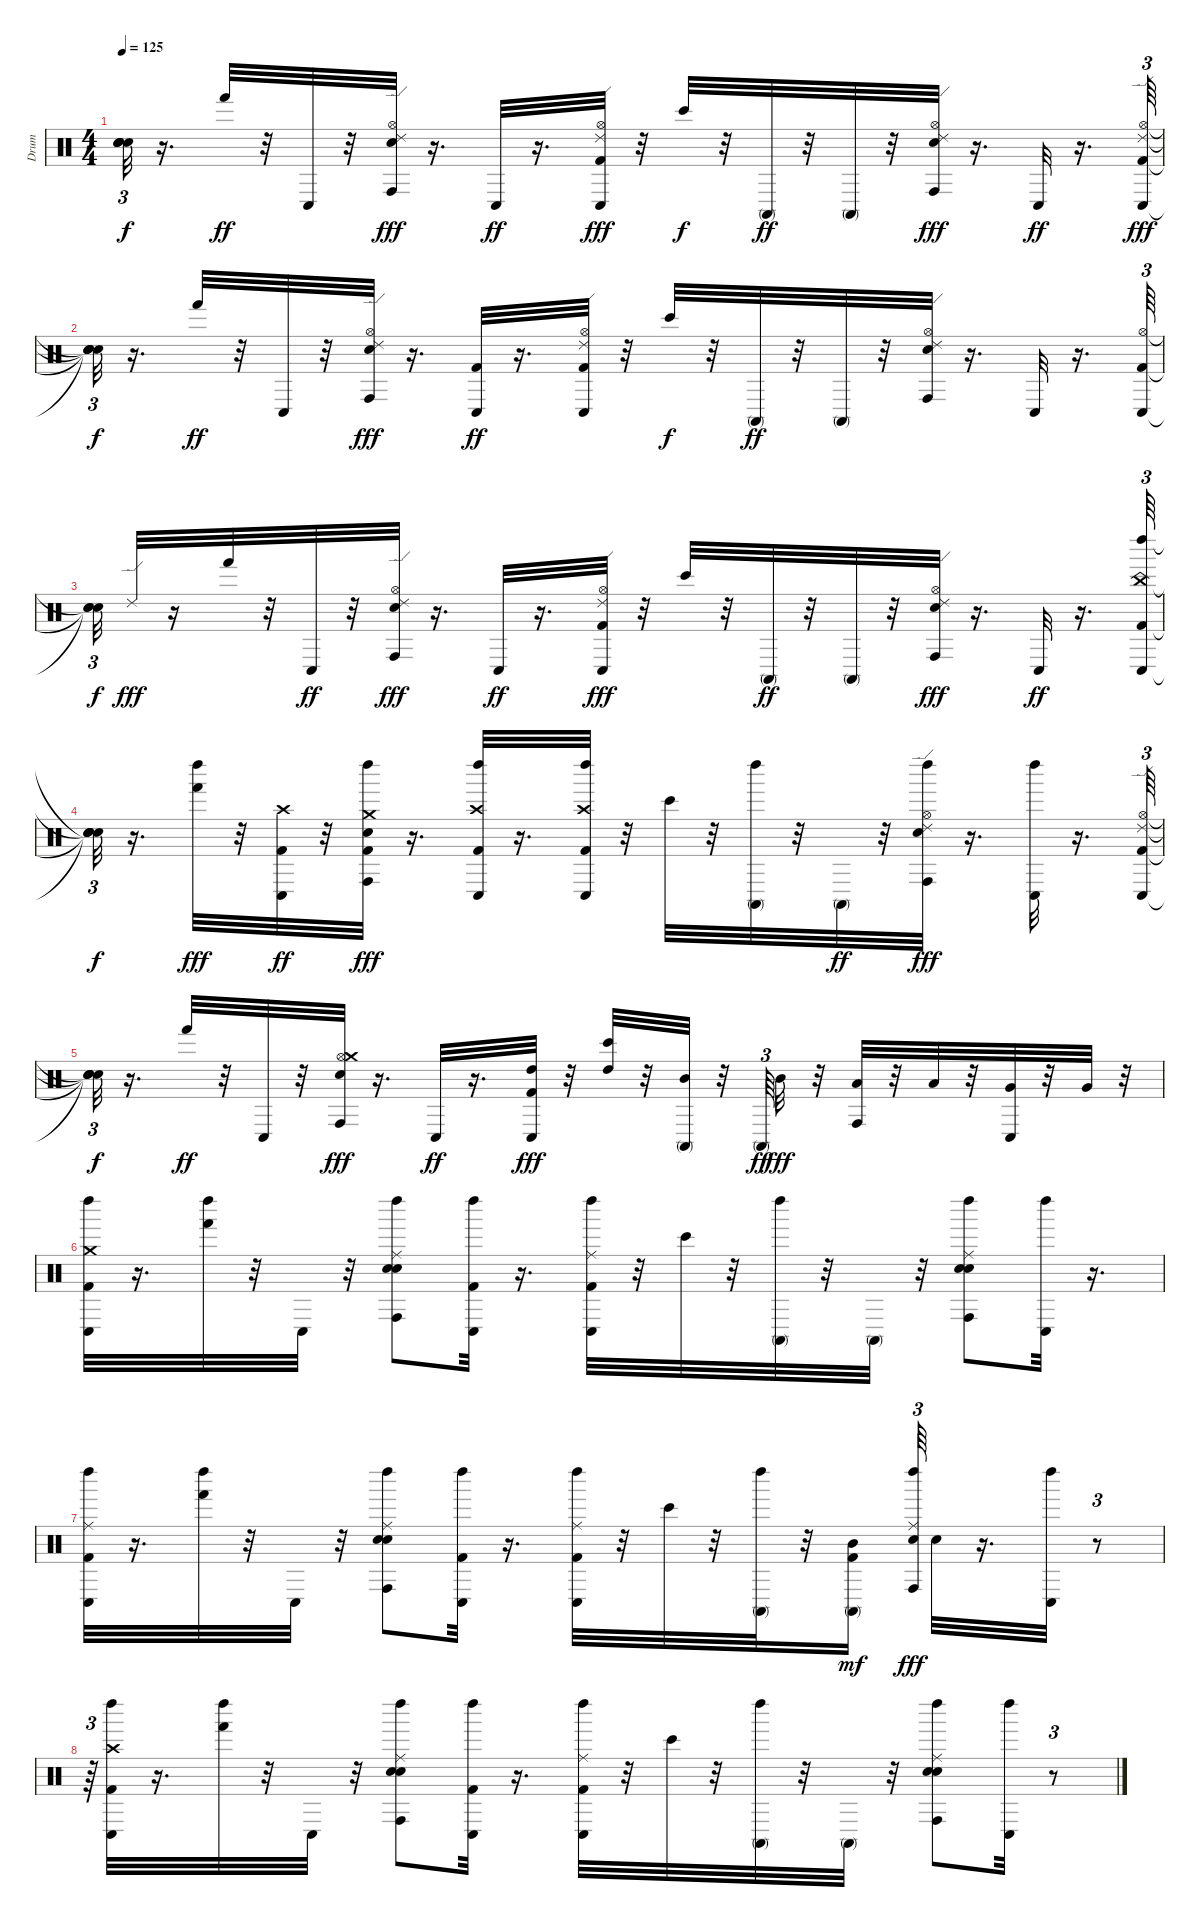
\track ("Drum" "Drum") {instrument percussion}
\staff {score}
\articulation defaults
\ts (4 4)
\tempo 125
\clef neutral
\ks c
("Snare (hit)"{t} "Snare (hit)"{t} "Snare (hit)"{t} "Snare (hit)"{t}).32{tu (3 2) dy f} r.16{d} "Hand (hit)".32{dy ff} r.32 "Conga low (hit)".32 r.32 ("Hi-Hat (open)" "Conga high (hit)" "Electric Snare (hit)" "Ride (edge) 2").32{dy fff} r.16{d} "Conga low (hit)".32{dy ff} r.16{d} ("Kick (hit) 2" "Hi-Hat (open)" "Conga low (hit)" "Ride (edge) 2").32{dy fff} r.32 "Bongo High (hit)".32{dy f} r.32 "Conga high (mute)".32{dy ff} r.32 "Conga high (mute)".32 r.32 ("Hi-Hat (open)" "Conga high (hit)" "Electric Snare (hit)" "Ride (edge) 2").32{dy fff} r.16{d} "Conga low (hit)".32{dy ff} r.16{d} ("Kick (hit) 2" "Hi-Hat (open)" "Conga low (hit)" "Ride (edge) 2").64{tu (3 2) dy fff} |
("Snare (hit)"{t} "Snare (hit)"{t} "Snare (hit)"{t} "Snare (hit)"{t}).32{tu (3 2) dy f} r.16{d} "Hand (hit)".32{dy ff} r.32 "Conga low (hit)".32 r.32 ("Hi-Hat (open)" "Conga high (hit)" "Electric Snare (hit)" "Ride (edge) 2").32{dy fff} r.16{d} ("Kick (hit) 2" "Conga low (hit)").32{dy ff} r.16{d} ("Kick (hit) 2" "Hi-Hat (open)" "Conga low (hit)" "Ride (edge) 2").32 r.32 "Bongo High (hit)".32{dy f} r.32 "Conga high (mute)".32{dy ff} r.32 "Conga high (mute)".32 r.32 ("Hi-Hat (open)" "Conga high (hit)" "Electric Snare (hit)" "Ride (edge) 2").32 r.16{d} "Conga low (hit)".32 r.16{d} ("Kick (hit) 2" "Hi-Hat (open)" "Conga low (hit)").64{tu (3 2)} |
("Snare (hit)"{t} "Snare (hit)"{t} "Snare (hit)"{t}).32{tu (3 2) dy f} "Ride (edge) 2".32{dy fff} r.16 "Hand (hit)".32 r.32 "Conga low (hit)".32{dy ff} r.32 ("Hi-Hat (open)" "Conga high (hit)" "Electric Snare (hit)" "Ride (edge) 2").32{dy fff} r.16{d} "Conga low (hit)".32{dy ff} r.16{d} ("Kick (hit) 2" "Hi-Hat (open)" "Conga low (hit)" "Ride (edge) 2").32{dy fff} r.32 "Bongo High (hit)".32 r.32 "Conga high (mute)".32{dy ff} r.32 "Conga high (mute)".32 r.32 ("Hi-Hat (open)" "Conga high (hit)" "Electric Snare (hit)" "Ride (edge) 2").32{dy fff} r.16{d} "Conga low (hit)".32{dy ff} r.16{d} ("Kick (hit) 2" "Conga low (hit)" "Left Maraca (hit)" "China (hit)").64{tu (3 2)} |
("Snare (hit)"{t} "Snare (hit)"{t} "Snare (hit)"{t} "Snare (hit)"{t}).32{tu (3 2) dy f} r.16{d} ("Hand (hit)" "Left Maraca (hit)").32{dy fff} r.32 ("Kick (hit) 2" "Conga low (hit)" "Crash high (hit)").32{dy ff} r.32 ("Kick (hit) 2" "Conga high (hit)" "Left Maraca (hit)" "Electric Snare (hit)" "Crash medium (hit)").32{dy fff} r.16{d} ("Kick (hit) 2" "Conga low (hit)" "Left Maraca (hit)" "Crash high (hit)").32 r.16{d} ("Kick (hit) 2" "Conga low (hit)" "Left Maraca (hit)" "Crash high (hit)").32 r.32 "Bongo High (hit)".32 r.32 ("Conga high (mute)" "Left Maraca (hit)").32 r.32 "Conga high (mute)".32{dy ff} r.32 ("Hi-Hat (open)" "Conga high (hit)" "Left Maraca (hit)" "Electric Snare (hit)" "Ride (edge) 2").32{dy fff} r.16{d} ("Conga low (hit)" "Left Maraca (hit)").32 r.16{d} ("Kick (hit) 2" "Hi-Hat (open)" "Conga low (hit)" "Ride (edge) 2").64{tu (3 2)} |
("Snare (hit)"{t} "Snare (hit)"{t} "Snare (hit)"{t} "Snare (hit)"{t}).32{tu (3 2) dy f} r.16{d} "Hand (hit)".32{dy ff} r.32 "Conga low (hit)".32 r.32 ("Hi-Hat (open)" "Conga high (hit)" "Electric Snare (hit)" "Crash medium (hit)").32{dy fff} r.16{d} "Conga low (hit)".32{dy ff} r.16{d} ("Kick (hit) 2" "Conga low (hit)" "High Tom (hit)").32{dy fff} r.32 ("Bongo High (hit)" "High Tom (hit)").32 r.32 ("Conga high (mute)" "Mid Tom (hit)").32 r.32 "Conga high (mute)".64{tu (3 2) dy ff} "Mid Tom (hit)".32{dy fff} r.32 ("Conga high (hit)" "Low Tom (hit)").32 r.32 "Low Tom (hit)".32 r.32 ("Conga low (hit)" "Very Low Tom (hit)").32 r.32 "Very Low Tom (hit)".32 r.32 |
("Kick (hit) 2" "Conga low (hit)" "Left Maraca (hit)" "Crash medium (hit)").32 r.16{d} ("Hand (hit)" "Left Maraca (hit)").32 r.32 "Conga low (hit)".32 r.32 ("Conga high (hit)" "Left Maraca (hit)" "Electric Snare (hit)" "Ride (middle)" "Electric Snare (hit)").8 ("Kick (hit) 2" "Conga low (hit)" "Left Maraca (hit)").32 r.16{d} ("Kick (hit) 2" "Conga low (hit)" "Left Maraca (hit)" "Ride (middle)").32 r.32 "Bongo High (hit)".32 r.32 ("Conga high (mute)" "Left Maraca (hit)").32 r.32 "Conga high (mute)".32 r.32 ("Conga high (hit)" "Left Maraca (hit)" "Electric Snare (hit)" "Ride (middle)" "Electric Snare (hit)").8 ("Conga low (hit)" "Left Maraca (hit)").32 r.16{d} |
("Kick (hit) 2" "Conga low (hit)" "Left Maraca (hit)" "Ride (middle)").32 r.16{d} ("Hand (hit)" "Left Maraca (hit)").32 r.32 "Conga low (hit)".32 r.32 ("Conga high (hit)" "Left Maraca (hit)" "Electric Snare (hit)" "Ride (middle)" "Electric Snare (hit)").8 ("Kick (hit) 2" "Conga low (hit)" "Left Maraca (hit)").32 r.16{d} ("Kick (hit) 2" "Conga low (hit)" "Left Maraca (hit)" "Ride (middle)").32 r.32 "Bongo High (hit)".32 r.32 ("Conga high (mute)" "Left Maraca (hit)").32 r.32 ("Kick (hit) 2" "Conga high (mute)" "Mid Tom (hit)").16{dy mf} ("Conga high (hit)" "Left Maraca (hit)" "Electric Snare (hit)" "Ride (middle)").64{tu (3 2) dy fff} "Electric Snare (hit)".32 r.16{d} ("Conga low (hit)" "Left Maraca (hit)").32 r.8{tu (3 2)} |
r.64{tu (3 2)} ("Kick (hit) 2" "Conga low (hit)" "Left Maraca (hit)" "Crash high (hit)").32 r.16{d} ("Hand (hit)" "Left Maraca (hit)").32 r.32 "Conga low (hit)".32 r.32 ("Conga high (hit)" "Left Maraca (hit)" "Electric Snare (hit)" "Ride (middle)" "Electric Snare (hit)").8 ("Kick (hit) 2" "Conga low (hit)" "Left Maraca (hit)").32 r.16{d} ("Kick (hit) 2" "Conga low (hit)" "Left Maraca (hit)" "Ride (middle)").32 r.32 "Bongo High (hit)".32 r.32 ("Conga high (mute)" "Left Maraca (hit)").32 r.32 "Conga high (mute)".32 r.32 ("Conga high (hit)" "Left Maraca (hit)" "Electric Snare (hit)" "Ride (middle)" "Electric Snare (hit)").8 ("Conga low (hit)" "Left Maraca (hit)").32 r.8{tu (3 2)}
